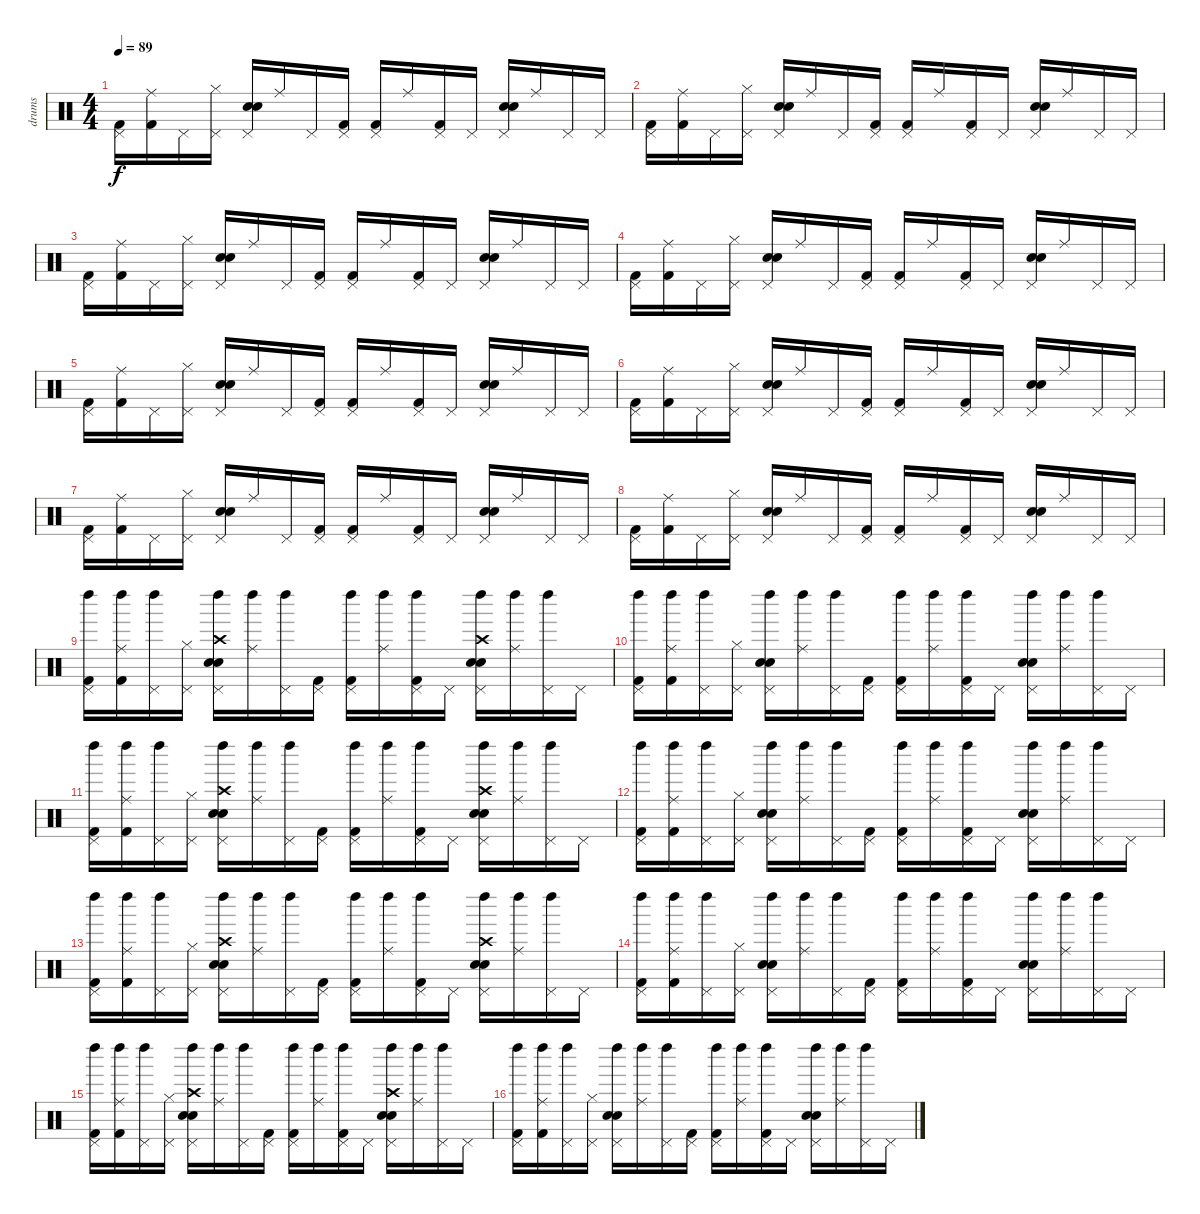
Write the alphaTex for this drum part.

\track ("drums" "drums") {instrument percussion}
\staff {score}
\articulation defaults
\ts (4 4)
\tempo 89
\clef neutral
\ks c
("Kick (hit) 2" "Pedal Hi-Hat (hit)").16{dy f} ("Kick (hit) 2" "Ride (middle)").16 "Pedal Hi-Hat (hit)".16 ("Hi-Hat (closed)" "Pedal Hi-Hat (hit)").16 ("Hand Clap (hit)" "Hand Clap (hit)" "Pedal Hi-Hat (hit)").16 "Ride (middle)".16 "Pedal Hi-Hat (hit)".16 ("Kick (hit) 2" "Pedal Hi-Hat (hit)").16 ("Kick (hit) 2" "Pedal Hi-Hat (hit)").16 "Ride (middle)".16 ("Kick (hit) 2" "Pedal Hi-Hat (hit)").16 "Pedal Hi-Hat (hit)".16 ("Hand Clap (hit)" "Hand Clap (hit)" "Pedal Hi-Hat (hit)").16 "Ride (middle)".16 "Pedal Hi-Hat (hit)".16 "Pedal Hi-Hat (hit)".16 |
("Kick (hit) 2" "Pedal Hi-Hat (hit)").16 ("Kick (hit) 2" "Ride (middle)").16 "Pedal Hi-Hat (hit)".16 ("Hi-Hat (closed)" "Pedal Hi-Hat (hit)").16 ("Hand Clap (hit)" "Hand Clap (hit)" "Pedal Hi-Hat (hit)").16 "Ride (middle)".16 "Pedal Hi-Hat (hit)".16 ("Kick (hit) 2" "Pedal Hi-Hat (hit)").16 ("Kick (hit) 2" "Pedal Hi-Hat (hit)").16 "Ride (middle)".16 ("Kick (hit) 2" "Pedal Hi-Hat (hit)").16 "Pedal Hi-Hat (hit)".16 ("Hand Clap (hit)" "Hand Clap (hit)" "Pedal Hi-Hat (hit)").16 "Ride (middle)".16 "Pedal Hi-Hat (hit)".16 "Pedal Hi-Hat (hit)".16 |
("Kick (hit) 2" "Pedal Hi-Hat (hit)").16 ("Kick (hit) 2" "Ride (middle)").16 "Pedal Hi-Hat (hit)".16 ("Hi-Hat (closed)" "Pedal Hi-Hat (hit)").16 ("Hand Clap (hit)" "Hand Clap (hit)" "Pedal Hi-Hat (hit)").16 "Ride (middle)".16 "Pedal Hi-Hat (hit)".16 ("Kick (hit) 2" "Pedal Hi-Hat (hit)").16 ("Kick (hit) 2" "Pedal Hi-Hat (hit)").16 "Ride (middle)".16 ("Kick (hit) 2" "Pedal Hi-Hat (hit)").16 "Pedal Hi-Hat (hit)".16 ("Hand Clap (hit)" "Hand Clap (hit)" "Pedal Hi-Hat (hit)").16 "Ride (middle)".16 "Pedal Hi-Hat (hit)".16 "Pedal Hi-Hat (hit)".16 |
("Kick (hit) 2" "Pedal Hi-Hat (hit)").16 ("Kick (hit) 2" "Ride (middle)").16 "Pedal Hi-Hat (hit)".16 ("Hi-Hat (closed)" "Pedal Hi-Hat (hit)").16 ("Hand Clap (hit)" "Hand Clap (hit)" "Pedal Hi-Hat (hit)").16 "Ride (middle)".16 "Pedal Hi-Hat (hit)".16 ("Kick (hit) 2" "Pedal Hi-Hat (hit)").16 ("Kick (hit) 2" "Pedal Hi-Hat (hit)").16 "Ride (middle)".16 ("Kick (hit) 2" "Pedal Hi-Hat (hit)").16 "Pedal Hi-Hat (hit)".16 ("Hand Clap (hit)" "Hand Clap (hit)" "Pedal Hi-Hat (hit)").16 "Ride (middle)".16 "Pedal Hi-Hat (hit)".16 "Pedal Hi-Hat (hit)".16 |
("Kick (hit) 2" "Pedal Hi-Hat (hit)").16 ("Kick (hit) 2" "Ride (middle)").16 "Pedal Hi-Hat (hit)".16 ("Hi-Hat (closed)" "Pedal Hi-Hat (hit)").16 ("Hand Clap (hit)" "Hand Clap (hit)" "Pedal Hi-Hat (hit)").16 "Ride (middle)".16 "Pedal Hi-Hat (hit)".16 ("Kick (hit) 2" "Pedal Hi-Hat (hit)").16 ("Kick (hit) 2" "Pedal Hi-Hat (hit)").16 "Ride (middle)".16 ("Kick (hit) 2" "Pedal Hi-Hat (hit)").16 "Pedal Hi-Hat (hit)".16 ("Hand Clap (hit)" "Hand Clap (hit)" "Pedal Hi-Hat (hit)").16 "Ride (middle)".16 "Pedal Hi-Hat (hit)".16 "Pedal Hi-Hat (hit)".16 |
("Kick (hit) 2" "Pedal Hi-Hat (hit)").16 ("Kick (hit) 2" "Ride (middle)").16 "Pedal Hi-Hat (hit)".16 ("Hi-Hat (closed)" "Pedal Hi-Hat (hit)").16 ("Hand Clap (hit)" "Hand Clap (hit)" "Pedal Hi-Hat (hit)").16 "Ride (middle)".16 "Pedal Hi-Hat (hit)".16 ("Kick (hit) 2" "Pedal Hi-Hat (hit)").16 ("Kick (hit) 2" "Pedal Hi-Hat (hit)").16 "Ride (middle)".16 ("Kick (hit) 2" "Pedal Hi-Hat (hit)").16 "Pedal Hi-Hat (hit)".16 ("Hand Clap (hit)" "Hand Clap (hit)" "Pedal Hi-Hat (hit)").16 "Ride (middle)".16 "Pedal Hi-Hat (hit)".16 "Pedal Hi-Hat (hit)".16 |
("Kick (hit) 2" "Pedal Hi-Hat (hit)").16 ("Kick (hit) 2" "Ride (middle)").16 "Pedal Hi-Hat (hit)".16 ("Hi-Hat (closed)" "Pedal Hi-Hat (hit)").16 ("Hand Clap (hit)" "Hand Clap (hit)" "Pedal Hi-Hat (hit)").16 "Ride (middle)".16 "Pedal Hi-Hat (hit)".16 ("Kick (hit) 2" "Pedal Hi-Hat (hit)").16 ("Kick (hit) 2" "Pedal Hi-Hat (hit)").16 "Ride (middle)".16 ("Kick (hit) 2" "Pedal Hi-Hat (hit)").16 "Pedal Hi-Hat (hit)".16 ("Hand Clap (hit)" "Hand Clap (hit)" "Pedal Hi-Hat (hit)").16 "Ride (middle)".16 "Pedal Hi-Hat (hit)".16 "Pedal Hi-Hat (hit)".16 |
("Kick (hit) 2" "Pedal Hi-Hat (hit)").16 ("Kick (hit) 2" "Ride (middle)").16 "Pedal Hi-Hat (hit)".16 ("Hi-Hat (closed)" "Pedal Hi-Hat (hit)").16 ("Hand Clap (hit)" "Hand Clap (hit)" "Pedal Hi-Hat (hit)").16 "Ride (middle)".16 "Pedal Hi-Hat (hit)".16 ("Kick (hit) 2" "Pedal Hi-Hat (hit)").16 ("Kick (hit) 2" "Pedal Hi-Hat (hit)").16 "Ride (middle)".16 ("Kick (hit) 2" "Pedal Hi-Hat (hit)").16 "Pedal Hi-Hat (hit)".16 ("Hand Clap (hit)" "Hand Clap (hit)" "Pedal Hi-Hat (hit)").16 "Ride (middle)".16 "Pedal Hi-Hat (hit)".16 "Pedal Hi-Hat (hit)".16 |
("Left Maraca (hit)" "Kick (hit) 2" "Pedal Hi-Hat (hit)").16 ("Left Maraca (hit)" "Kick (hit) 2" "Ride (middle)").16 ("Left Maraca (hit)" "Pedal Hi-Hat (hit)").16 ("Hi-Hat (closed)" "Pedal Hi-Hat (hit)").16 ("Left Maraca (hit)" "Crash high (hit)" "Hand Clap (hit)" "Hand Clap (hit)" "Pedal Hi-Hat (hit)").16 ("Left Maraca (hit)" "Ride (middle)").16 ("Left Maraca (hit)" "Pedal Hi-Hat (hit)").16 ("Kick (hit) 2" "Pedal Hi-Hat (hit)").16 ("Left Maraca (hit)" "Kick (hit) 2" "Pedal Hi-Hat (hit)").16 ("Left Maraca (hit)" "Ride (middle)").16 ("Left Maraca (hit)" "Kick (hit) 2" "Pedal Hi-Hat (hit)").16 "Pedal Hi-Hat (hit)".16 ("Left Maraca (hit)" "Crash high (hit)" "Hand Clap (hit)" "Hand Clap (hit)" "Pedal Hi-Hat (hit)").16 ("Left Maraca (hit)" "Ride (middle)").16 ("Left Maraca (hit)" "Pedal Hi-Hat (hit)").16 "Pedal Hi-Hat (hit)".16 |
("Left Maraca (hit)" "Kick (hit) 2" "Pedal Hi-Hat (hit)").16 ("Left Maraca (hit)" "Kick (hit) 2" "Ride (middle)").16 ("Left Maraca (hit)" "Pedal Hi-Hat (hit)").16 ("Hi-Hat (closed)" "Pedal Hi-Hat (hit)").16 ("Left Maraca (hit)" "Hand Clap (hit)" "Hand Clap (hit)" "Pedal Hi-Hat (hit)").16 ("Left Maraca (hit)" "Ride (middle)").16 ("Left Maraca (hit)" "Pedal Hi-Hat (hit)").16 ("Kick (hit) 2" "Pedal Hi-Hat (hit)").16 ("Left Maraca (hit)" "Kick (hit) 2" "Pedal Hi-Hat (hit)").16 ("Left Maraca (hit)" "Ride (middle)").16 ("Left Maraca (hit)" "Kick (hit) 2" "Pedal Hi-Hat (hit)").16 "Pedal Hi-Hat (hit)".16 ("Left Maraca (hit)" "Hand Clap (hit)" "Hand Clap (hit)" "Pedal Hi-Hat (hit)").16 ("Left Maraca (hit)" "Ride (middle)").16 ("Left Maraca (hit)" "Pedal Hi-Hat (hit)").16 "Pedal Hi-Hat (hit)".16 |
("Left Maraca (hit)" "Kick (hit) 2" "Pedal Hi-Hat (hit)").16 ("Left Maraca (hit)" "Kick (hit) 2" "Ride (middle)").16 ("Left Maraca (hit)" "Pedal Hi-Hat (hit)").16 ("Hi-Hat (closed)" "Pedal Hi-Hat (hit)").16 ("Left Maraca (hit)" "Hand Clap (hit)" "Hand Clap (hit)" "Pedal Hi-Hat (hit)" "Crash high (hit)").16 ("Left Maraca (hit)" "Ride (middle)").16 ("Left Maraca (hit)" "Pedal Hi-Hat (hit)").16 ("Kick (hit) 2" "Pedal Hi-Hat (hit)").16 ("Left Maraca (hit)" "Kick (hit) 2" "Pedal Hi-Hat (hit)").16 ("Left Maraca (hit)" "Ride (middle)").16 ("Left Maraca (hit)" "Kick (hit) 2" "Pedal Hi-Hat (hit)").16 "Pedal Hi-Hat (hit)".16 ("Left Maraca (hit)" "Crash high (hit)" "Hand Clap (hit)" "Hand Clap (hit)" "Pedal Hi-Hat (hit)").16 ("Left Maraca (hit)" "Ride (middle)").16 ("Left Maraca (hit)" "Pedal Hi-Hat (hit)").16 "Pedal Hi-Hat (hit)".16 |
("Left Maraca (hit)" "Kick (hit) 2" "Pedal Hi-Hat (hit)").16 ("Left Maraca (hit)" "Kick (hit) 2" "Ride (middle)").16 ("Left Maraca (hit)" "Pedal Hi-Hat (hit)").16 ("Hi-Hat (closed)" "Pedal Hi-Hat (hit)").16 ("Left Maraca (hit)" "Hand Clap (hit)" "Hand Clap (hit)" "Pedal Hi-Hat (hit)").16 ("Left Maraca (hit)" "Ride (middle)").16 ("Left Maraca (hit)" "Pedal Hi-Hat (hit)").16 ("Kick (hit) 2" "Pedal Hi-Hat (hit)").16 ("Left Maraca (hit)" "Kick (hit) 2" "Pedal Hi-Hat (hit)").16 ("Left Maraca (hit)" "Ride (middle)").16 ("Left Maraca (hit)" "Kick (hit) 2" "Pedal Hi-Hat (hit)").16 "Pedal Hi-Hat (hit)".16 ("Left Maraca (hit)" "Hand Clap (hit)" "Hand Clap (hit)" "Pedal Hi-Hat (hit)").16 ("Left Maraca (hit)" "Ride (middle)").16 ("Left Maraca (hit)" "Pedal Hi-Hat (hit)").16 "Pedal Hi-Hat (hit)".16 |
("Kick (hit) 2" "Pedal Hi-Hat (hit)" "Left Maraca (hit)").16 ("Kick (hit) 2" "Ride (middle)" "Left Maraca (hit)").16 ("Pedal Hi-Hat (hit)" "Left Maraca (hit)").16 ("Hi-Hat (closed)" "Pedal Hi-Hat (hit)").16 ("Crash high (hit)" "Hand Clap (hit)" "Hand Clap (hit)" "Pedal Hi-Hat (hit)" "Left Maraca (hit)").16 ("Ride (middle)" "Left Maraca (hit)").16 ("Pedal Hi-Hat (hit)" "Left Maraca (hit)").16 ("Kick (hit) 2" "Pedal Hi-Hat (hit)").16 ("Kick (hit) 2" "Pedal Hi-Hat (hit)" "Left Maraca (hit)").16 ("Ride (middle)" "Left Maraca (hit)").16 ("Kick (hit) 2" "Pedal Hi-Hat (hit)" "Left Maraca (hit)").16 "Pedal Hi-Hat (hit)".16 ("Crash high (hit)" "Hand Clap (hit)" "Hand Clap (hit)" "Pedal Hi-Hat (hit)" "Left Maraca (hit)").16 ("Ride (middle)" "Left Maraca (hit)").16 ("Pedal Hi-Hat (hit)" "Left Maraca (hit)").16 "Pedal Hi-Hat (hit)".16 |
("Kick (hit) 2" "Pedal Hi-Hat (hit)" "Left Maraca (hit)").16 ("Kick (hit) 2" "Ride (middle)" "Left Maraca (hit)").16 ("Pedal Hi-Hat (hit)" "Left Maraca (hit)").16 ("Hi-Hat (closed)" "Pedal Hi-Hat (hit)").16 ("Hand Clap (hit)" "Hand Clap (hit)" "Pedal Hi-Hat (hit)" "Left Maraca (hit)").16 ("Ride (middle)" "Left Maraca (hit)").16 ("Pedal Hi-Hat (hit)" "Left Maraca (hit)").16 ("Kick (hit) 2" "Pedal Hi-Hat (hit)").16 ("Kick (hit) 2" "Pedal Hi-Hat (hit)" "Left Maraca (hit)").16 ("Ride (middle)" "Left Maraca (hit)").16 ("Kick (hit) 2" "Pedal Hi-Hat (hit)" "Left Maraca (hit)").16 "Pedal Hi-Hat (hit)".16 ("Hand Clap (hit)" "Hand Clap (hit)" "Pedal Hi-Hat (hit)" "Left Maraca (hit)").16 ("Ride (middle)" "Left Maraca (hit)").16 ("Pedal Hi-Hat (hit)" "Left Maraca (hit)").16 "Pedal Hi-Hat (hit)".16 |
("Kick (hit) 2" "Pedal Hi-Hat (hit)" "Left Maraca (hit)").16 ("Kick (hit) 2" "Ride (middle)" "Left Maraca (hit)").16 ("Pedal Hi-Hat (hit)" "Left Maraca (hit)").16 ("Hi-Hat (closed)" "Pedal Hi-Hat (hit)").16 ("Hand Clap (hit)" "Hand Clap (hit)" "Pedal Hi-Hat (hit)" "Crash high (hit)" "Left Maraca (hit)").16 ("Ride (middle)" "Left Maraca (hit)").16 ("Pedal Hi-Hat (hit)" "Left Maraca (hit)").16 ("Kick (hit) 2" "Pedal Hi-Hat (hit)").16 ("Kick (hit) 2" "Pedal Hi-Hat (hit)" "Left Maraca (hit)").16 ("Ride (middle)" "Left Maraca (hit)").16 ("Kick (hit) 2" "Pedal Hi-Hat (hit)" "Left Maraca (hit)").16 "Pedal Hi-Hat (hit)".16 ("Crash high (hit)" "Hand Clap (hit)" "Hand Clap (hit)" "Pedal Hi-Hat (hit)" "Left Maraca (hit)").16 ("Ride (middle)" "Left Maraca (hit)").16 ("Pedal Hi-Hat (hit)" "Left Maraca (hit)").16 "Pedal Hi-Hat (hit)".16 |
("Kick (hit) 2" "Pedal Hi-Hat (hit)" "Left Maraca (hit)").16 ("Kick (hit) 2" "Ride (middle)" "Left Maraca (hit)").16 ("Pedal Hi-Hat (hit)" "Left Maraca (hit)").16 ("Hi-Hat (closed)" "Pedal Hi-Hat (hit)").16 ("Hand Clap (hit)" "Hand Clap (hit)" "Pedal Hi-Hat (hit)" "Left Maraca (hit)").16 ("Ride (middle)" "Left Maraca (hit)").16 ("Pedal Hi-Hat (hit)" "Left Maraca (hit)").16 ("Kick (hit) 2" "Pedal Hi-Hat (hit)").16 ("Kick (hit) 2" "Pedal Hi-Hat (hit)" "Left Maraca (hit)").16 ("Ride (middle)" "Left Maraca (hit)").16 ("Kick (hit) 2" "Pedal Hi-Hat (hit)" "Left Maraca (hit)").16 "Pedal Hi-Hat (hit)".16 ("Hand Clap (hit)" "Hand Clap (hit)" "Pedal Hi-Hat (hit)" "Left Maraca (hit)").16 ("Ride (middle)" "Left Maraca (hit)").16 ("Pedal Hi-Hat (hit)" "Left Maraca (hit)").16 "Pedal Hi-Hat (hit)".16
